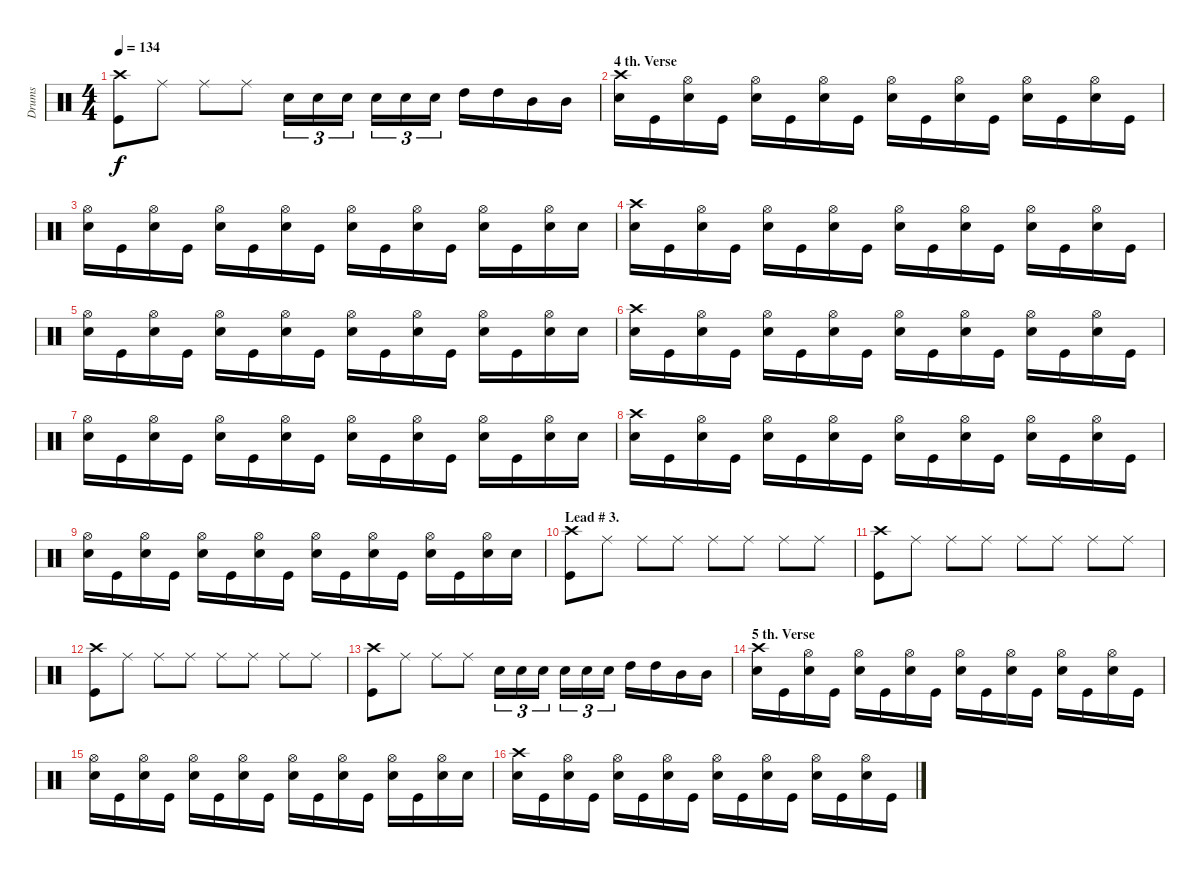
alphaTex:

\track ("Drums" "Drums") {instrument percussion}
\staff {score}
\articulation defaults
\ts (4 4)
\tempo 134
\clef neutral
\ks c
("Crash high (hit)" "Kick (hit)").8{dy f} "Ride (middle)".8 "Ride (middle)".8 "Ride (middle)".8 "Electric Snare (hit)".16{tu (3 2)} "Electric Snare (hit)".16{tu (3 2)} "Electric Snare (hit)".16{tu (3 2)} "Electric Snare (hit)".16{tu (3 2)} "Electric Snare (hit)".16{tu (3 2)} "Electric Snare (hit)".16{tu (3 2)} "High Tom (hit)".16 "High Tom (hit)".16 "Mid Tom (hit)".16 "Mid Tom (hit)".16 |
\section ("" "4 th. Verse")
("Crash high (hit)" "Electric Snare (hit)").16 "Kick (hit)".16 ("Hi-Hat (open)" "Electric Snare (hit)").16 "Kick (hit)".16 ("Hi-Hat (open)" "Electric Snare (hit)").16 "Kick (hit)".16 ("Hi-Hat (open)" "Electric Snare (hit)").16 "Kick (hit)".16 ("Hi-Hat (open)" "Electric Snare (hit)").16 "Kick (hit)".16 ("Hi-Hat (open)" "Electric Snare (hit)").16 "Kick (hit)".16 ("Hi-Hat (open)" "Electric Snare (hit)").16 "Kick (hit)".16 ("Hi-Hat (open)" "Electric Snare (hit)").16 "Kick (hit)".16 |
("Hi-Hat (open)" "Electric Snare (hit)").16 "Kick (hit)".16 ("Hi-Hat (open)" "Electric Snare (hit)").16 "Kick (hit)".16 ("Hi-Hat (open)" "Electric Snare (hit)").16 "Kick (hit)".16 ("Hi-Hat (open)" "Electric Snare (hit)").16 "Kick (hit)".16 ("Hi-Hat (open)" "Electric Snare (hit)").16 "Kick (hit)".16 ("Hi-Hat (open)" "Electric Snare (hit)").16 "Kick (hit)".16 ("Hi-Hat (open)" "Electric Snare (hit)").16 "Kick (hit)".16 ("Hi-Hat (open)" "Electric Snare (hit)").16 "Electric Snare (hit)".16 |
("Crash high (hit)" "Electric Snare (hit)").16 "Kick (hit)".16 ("Hi-Hat (open)" "Electric Snare (hit)").16 "Kick (hit)".16 ("Hi-Hat (open)" "Electric Snare (hit)").16 "Kick (hit)".16 ("Hi-Hat (open)" "Electric Snare (hit)").16 "Kick (hit)".16 ("Hi-Hat (open)" "Electric Snare (hit)").16 "Kick (hit)".16 ("Hi-Hat (open)" "Electric Snare (hit)").16 "Kick (hit)".16 ("Hi-Hat (open)" "Electric Snare (hit)").16 "Kick (hit)".16 ("Hi-Hat (open)" "Electric Snare (hit)").16 "Kick (hit)".16 |
("Hi-Hat (open)" "Electric Snare (hit)").16 "Kick (hit)".16 ("Hi-Hat (open)" "Electric Snare (hit)").16 "Kick (hit)".16 ("Hi-Hat (open)" "Electric Snare (hit)").16 "Kick (hit)".16 ("Hi-Hat (open)" "Electric Snare (hit)").16 "Kick (hit)".16 ("Hi-Hat (open)" "Electric Snare (hit)").16 "Kick (hit)".16 ("Hi-Hat (open)" "Electric Snare (hit)").16 "Kick (hit)".16 ("Hi-Hat (open)" "Electric Snare (hit)").16 "Kick (hit)".16 ("Hi-Hat (open)" "Electric Snare (hit)").16 "Electric Snare (hit)".16 |
("Crash high (hit)" "Electric Snare (hit)").16 "Kick (hit)".16 ("Hi-Hat (open)" "Electric Snare (hit)").16 "Kick (hit)".16 ("Hi-Hat (open)" "Electric Snare (hit)").16 "Kick (hit)".16 ("Hi-Hat (open)" "Electric Snare (hit)").16 "Kick (hit)".16 ("Hi-Hat (open)" "Electric Snare (hit)").16 "Kick (hit)".16 ("Hi-Hat (open)" "Electric Snare (hit)").16 "Kick (hit)".16 ("Hi-Hat (open)" "Electric Snare (hit)").16 "Kick (hit)".16 ("Hi-Hat (open)" "Electric Snare (hit)").16 "Kick (hit)".16 |
("Hi-Hat (open)" "Electric Snare (hit)").16 "Kick (hit)".16 ("Hi-Hat (open)" "Electric Snare (hit)").16 "Kick (hit)".16 ("Hi-Hat (open)" "Electric Snare (hit)").16 "Kick (hit)".16 ("Hi-Hat (open)" "Electric Snare (hit)").16 "Kick (hit)".16 ("Hi-Hat (open)" "Electric Snare (hit)").16 "Kick (hit)".16 ("Hi-Hat (open)" "Electric Snare (hit)").16 "Kick (hit)".16 ("Hi-Hat (open)" "Electric Snare (hit)").16 "Kick (hit)".16 ("Hi-Hat (open)" "Electric Snare (hit)").16 "Electric Snare (hit)".16 |
("Crash high (hit)" "Electric Snare (hit)").16 "Kick (hit)".16 ("Hi-Hat (open)" "Electric Snare (hit)").16 "Kick (hit)".16 ("Hi-Hat (open)" "Electric Snare (hit)").16 "Kick (hit)".16 ("Hi-Hat (open)" "Electric Snare (hit)").16 "Kick (hit)".16 ("Hi-Hat (open)" "Electric Snare (hit)").16 "Kick (hit)".16 ("Hi-Hat (open)" "Electric Snare (hit)").16 "Kick (hit)".16 ("Hi-Hat (open)" "Electric Snare (hit)").16 "Kick (hit)".16 ("Hi-Hat (open)" "Electric Snare (hit)").16 "Kick (hit)".16 |
("Hi-Hat (open)" "Electric Snare (hit)").16 "Kick (hit)".16 ("Hi-Hat (open)" "Electric Snare (hit)").16 "Kick (hit)".16 ("Hi-Hat (open)" "Electric Snare (hit)").16 "Kick (hit)".16 ("Hi-Hat (open)" "Electric Snare (hit)").16 "Kick (hit)".16 ("Hi-Hat (open)" "Electric Snare (hit)").16 "Kick (hit)".16 ("Hi-Hat (open)" "Electric Snare (hit)").16 "Kick (hit)".16 ("Hi-Hat (open)" "Electric Snare (hit)").16 "Kick (hit)".16 ("Hi-Hat (open)" "Electric Snare (hit)").16 "Electric Snare (hit)".16 |
\section ("" "Lead # 3.")
("Crash high (hit)" "Kick (hit)").8 "Ride (middle)".8 "Ride (middle)".8 "Ride (middle)".8 "Ride (middle)".8 "Ride (middle)".8 "Ride (middle)".8 "Ride (middle)".8 |
("Crash high (hit)" "Kick (hit)").8 "Ride (middle)".8 "Ride (middle)".8 "Ride (middle)".8 "Ride (middle)".8 "Ride (middle)".8 "Ride (middle)".8 "Ride (middle)".8 |
("Crash high (hit)" "Kick (hit)").8 "Ride (middle)".8 "Ride (middle)".8 "Ride (middle)".8 "Ride (middle)".8 "Ride (middle)".8 "Ride (middle)".8 "Ride (middle)".8 |
("Crash high (hit)" "Kick (hit)").8 "Ride (middle)".8 "Ride (middle)".8 "Ride (middle)".8 "Electric Snare (hit)".16{tu (3 2)} "Electric Snare (hit)".16{tu (3 2)} "Electric Snare (hit)".16{tu (3 2)} "Electric Snare (hit)".16{tu (3 2)} "Electric Snare (hit)".16{tu (3 2)} "Electric Snare (hit)".16{tu (3 2)} "High Tom (hit)".16 "High Tom (hit)".16 "Mid Tom (hit)".16 "Mid Tom (hit)".16 |
\section ("" "5 th. Verse")
("Crash high (hit)" "Electric Snare (hit)").16 "Kick (hit)".16 ("Hi-Hat (open)" "Electric Snare (hit)").16 "Kick (hit)".16 ("Hi-Hat (open)" "Electric Snare (hit)").16 "Kick (hit)".16 ("Hi-Hat (open)" "Electric Snare (hit)").16 "Kick (hit)".16 ("Hi-Hat (open)" "Electric Snare (hit)").16 "Kick (hit)".16 ("Hi-Hat (open)" "Electric Snare (hit)").16 "Kick (hit)".16 ("Hi-Hat (open)" "Electric Snare (hit)").16 "Kick (hit)".16 ("Hi-Hat (open)" "Electric Snare (hit)").16 "Kick (hit)".16 |
("Hi-Hat (open)" "Electric Snare (hit)").16 "Kick (hit)".16 ("Hi-Hat (open)" "Electric Snare (hit)").16 "Kick (hit)".16 ("Hi-Hat (open)" "Electric Snare (hit)").16 "Kick (hit)".16 ("Hi-Hat (open)" "Electric Snare (hit)").16 "Kick (hit)".16 ("Hi-Hat (open)" "Electric Snare (hit)").16 "Kick (hit)".16 ("Hi-Hat (open)" "Electric Snare (hit)").16 "Kick (hit)".16 ("Hi-Hat (open)" "Electric Snare (hit)").16 "Kick (hit)".16 ("Hi-Hat (open)" "Electric Snare (hit)").16 "Electric Snare (hit)".16 |
("Crash high (hit)" "Electric Snare (hit)").16 "Kick (hit)".16 ("Hi-Hat (open)" "Electric Snare (hit)").16 "Kick (hit)".16 ("Hi-Hat (open)" "Electric Snare (hit)").16 "Kick (hit)".16 ("Hi-Hat (open)" "Electric Snare (hit)").16 "Kick (hit)".16 ("Hi-Hat (open)" "Electric Snare (hit)").16 "Kick (hit)".16 ("Hi-Hat (open)" "Electric Snare (hit)").16 "Kick (hit)".16 ("Hi-Hat (open)" "Electric Snare (hit)").16 "Kick (hit)".16 ("Hi-Hat (open)" "Electric Snare (hit)").16 "Kick (hit)".16
